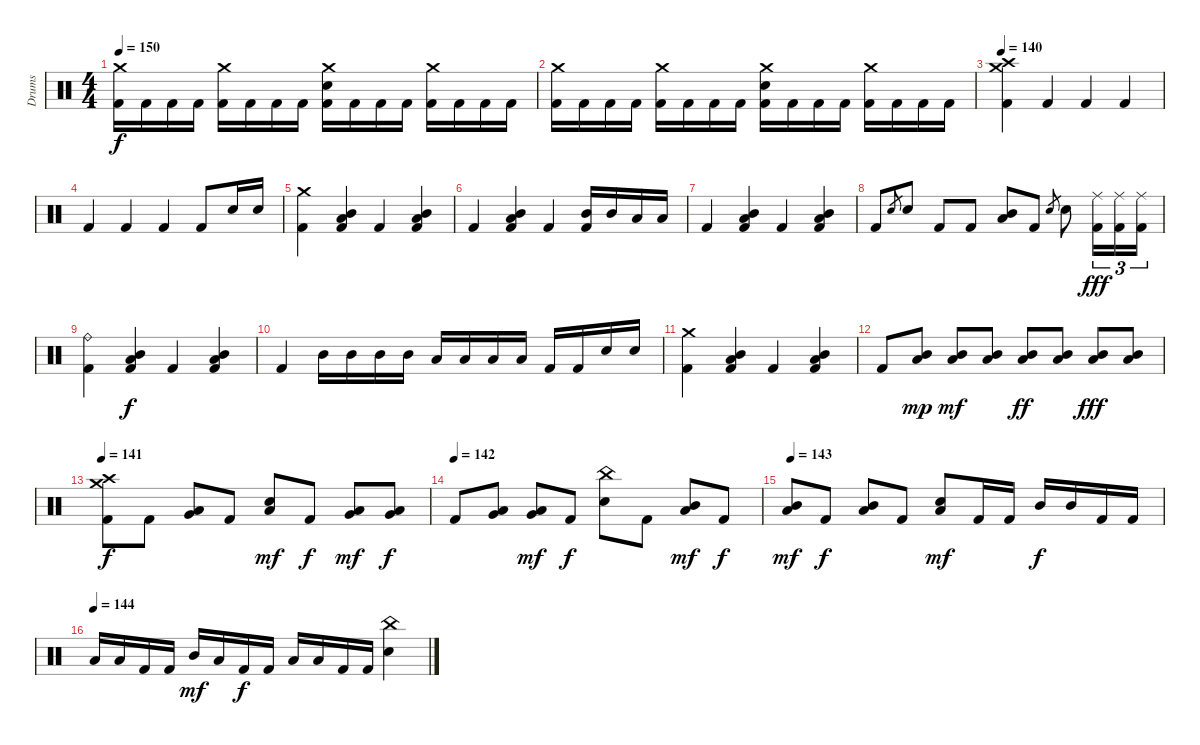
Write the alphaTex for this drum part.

\track ("Drums" "Drums") {instrument percussion}
\staff {score}
\articulation defaults
\ts (4 4)
\tempo 150
\clef neutral
\ks c
("Crash medium (hit)" "Kick (hit) 2").16{dy f} "Kick (hit) 2".16 "Kick (hit) 2".16 "Kick (hit) 2".16 ("Crash medium (hit)" "Kick (hit) 2").16 "Kick (hit) 2".16 "Kick (hit) 2".16 "Kick (hit) 2".16 ("Crash medium (hit)" "Electric Snare (hit)" "Kick (hit) 2").16 "Kick (hit) 2".16 "Kick (hit) 2".16 "Kick (hit) 2".16 ("Crash medium (hit)" "Kick (hit) 2").16 "Kick (hit) 2".16 "Kick (hit) 2".16 "Kick (hit) 2".16 |
("Crash medium (hit)" "Kick (hit) 2").16 "Kick (hit) 2".16 "Kick (hit) 2".16 "Kick (hit) 2".16 ("Crash medium (hit)" "Kick (hit) 2").16 "Kick (hit) 2".16 "Kick (hit) 2".16 "Kick (hit) 2".16 ("Crash medium (hit)" "Electric Snare (hit)" "Kick (hit) 2").16 "Kick (hit) 2".16 "Kick (hit) 2".16 "Kick (hit) 2".16 ("Crash medium (hit)" "Kick (hit) 2").16 "Kick (hit) 2".16 "Kick (hit) 2".16 "Kick (hit) 2".16 |
\tempo 140
("Crash medium (hit)" "Crash high (hit)" "Kick (hit) 2").4 "Kick (hit) 2".4 "Kick (hit) 2".4 "Kick (hit) 2".4 |
"Kick (hit) 2".4 "Kick (hit) 2".4 "Kick (hit) 2".4 "Kick (hit) 2".8 "Electric Snare (hit)".16 "Electric Snare (hit)".16 |
("Crash medium (hit)" "Kick (hit) 2").4 ("Mid Tom (hit)" "Low Tom (hit)" "Kick (hit) 2").4 "Kick (hit) 2".4 ("Mid Tom (hit)" "Low Tom (hit)" "Kick (hit) 2").4 |
"Kick (hit) 2".4 ("Mid Tom (hit)" "Low Tom (hit)" "Kick (hit) 2").4 "Kick (hit) 2".4 ("Mid Tom (hit)" "Kick (hit) 2").16 "Mid Tom (hit)".16 "Low Tom (hit)".16 "Low Tom (hit)".16 |
"Kick (hit) 2".4 ("Mid Tom (hit)" "Low Tom (hit)" "Kick (hit) 2").4 "Kick (hit) 2".4 ("Mid Tom (hit)" "Low Tom (hit)" "Kick (hit) 2").4 |
"Kick (hit) 2".8 "Electric Snare (hit)".8{gr} "Electric Snare (hit)".8 "Kick (hit) 2".8 "Kick (hit) 2".8 ("Mid Tom (hit)" "Low Tom (hit)").8 "Kick (hit) 2".8 "Electric Snare (hit)".8{gr} "Electric Snare (hit)".8 ("Ride (middle)" "Kick (hit) 2").16{tu (3 2) dy fff} ("Ride (middle)" "Kick (hit) 2").16{tu (3 2)} ("Ride (middle)" "Kick (hit) 2").16{tu (3 2)} |
("Ride (bell)" "Kick (hit) 2").4 ("Mid Tom (hit)" "Low Tom (hit)" "Kick (hit) 2").4{dy f} "Kick (hit) 2".4 ("Mid Tom (hit)" "Low Tom (hit)" "Kick (hit) 2").4 |
"Kick (hit) 2".4 "Mid Tom (hit)".16 "Mid Tom (hit)".16 "Mid Tom (hit)".16 "Mid Tom (hit)".16 "Low Tom (hit)".16 "Low Tom (hit)".16 "Low Tom (hit)".16 "Low Tom (hit)".16 "Kick (hit) 2".16 "Kick (hit) 2".16 "Electric Snare (hit)".16 "Electric Snare (hit)".16 |
("Crash medium (hit)" "Kick (hit) 2").4 ("Mid Tom (hit)" "Low Tom (hit)" "Kick (hit) 2").4 "Kick (hit) 2".4 ("Mid Tom (hit)" "Low Tom (hit)" "Kick (hit) 2").4 |
"Kick (hit) 2".8 ("Mid Tom (hit)" "Low Tom (hit)").8{dy mp} ("Mid Tom (hit)" "Low Tom (hit)").8{dy mf} ("Mid Tom (hit)" "Low Tom (hit)").8 ("Mid Tom (hit)" "Low Tom (hit)").8{dy ff} ("Mid Tom (hit)" "Low Tom (hit)").8 ("Mid Tom (hit)" "Low Tom (hit)").8{dy fff} ("Mid Tom (hit)" "Low Tom (hit)").8 |
\tempo 141
("Crash medium (hit)" "Crash high (hit)" "Kick (hit) 2").8{dy f} "Kick (hit) 2".8 ("Low Tom (hit)" "Very Low Tom (hit)").8 "Kick (hit) 2".8 ("Low Tom (hit)" "Electric Snare (hit)").8{dy mf} "Kick (hit) 2".8{dy f} ("Low Tom (hit)" "Very Low Tom (hit)").8{dy mf} ("Low Tom (hit)" "Very Low Tom (hit)").8{dy f} |
\tempo (142)
"Kick (hit) 2".8 ("Very Low Tom (hit)" "Low Floor Tom (hit)").8 ("Very Low Tom (hit)" "Low Floor Tom (hit)").8{dy mf} "Kick (hit) 2".8{dy f} ("China (hit)" "Electric Snare (hit)").8 "Kick (hit) 2".8 ("Mid Tom (hit)" "Low Tom (hit)").8{dy mf} "Kick (hit) 2".8{dy f} |
\tempo 143
("Mid Tom (hit)" "Low Tom (hit)").8{dy mf} "Kick (hit) 2".8{dy f} ("Mid Tom (hit)" "Low Tom (hit)").8 "Kick (hit) 2".8 ("Low Tom (hit)" "Electric Snare (hit)").8{dy mf} "Kick (hit) 2".16 "Kick (hit) 2".16 "Mid Tom (hit)".16{dy f} "Mid Tom (hit)".16 "Kick (hit) 2".16 "Kick (hit) 2".16 |
\tempo (144)
"Low Tom (hit)".16 "Low Tom (hit)".16 "Kick (hit) 2".16 "Kick (hit) 2".16 "Mid Tom (hit)".16{dy mf} "Low Tom (hit)".16 "Kick (hit) 2".16{dy f} "Kick (hit) 2".16 "Low Tom (hit)".16 "Low Tom (hit)".16 "Kick (hit) 2".16 "Kick (hit) 2".16 ("China (hit)" "Electric Snare (hit)").4
